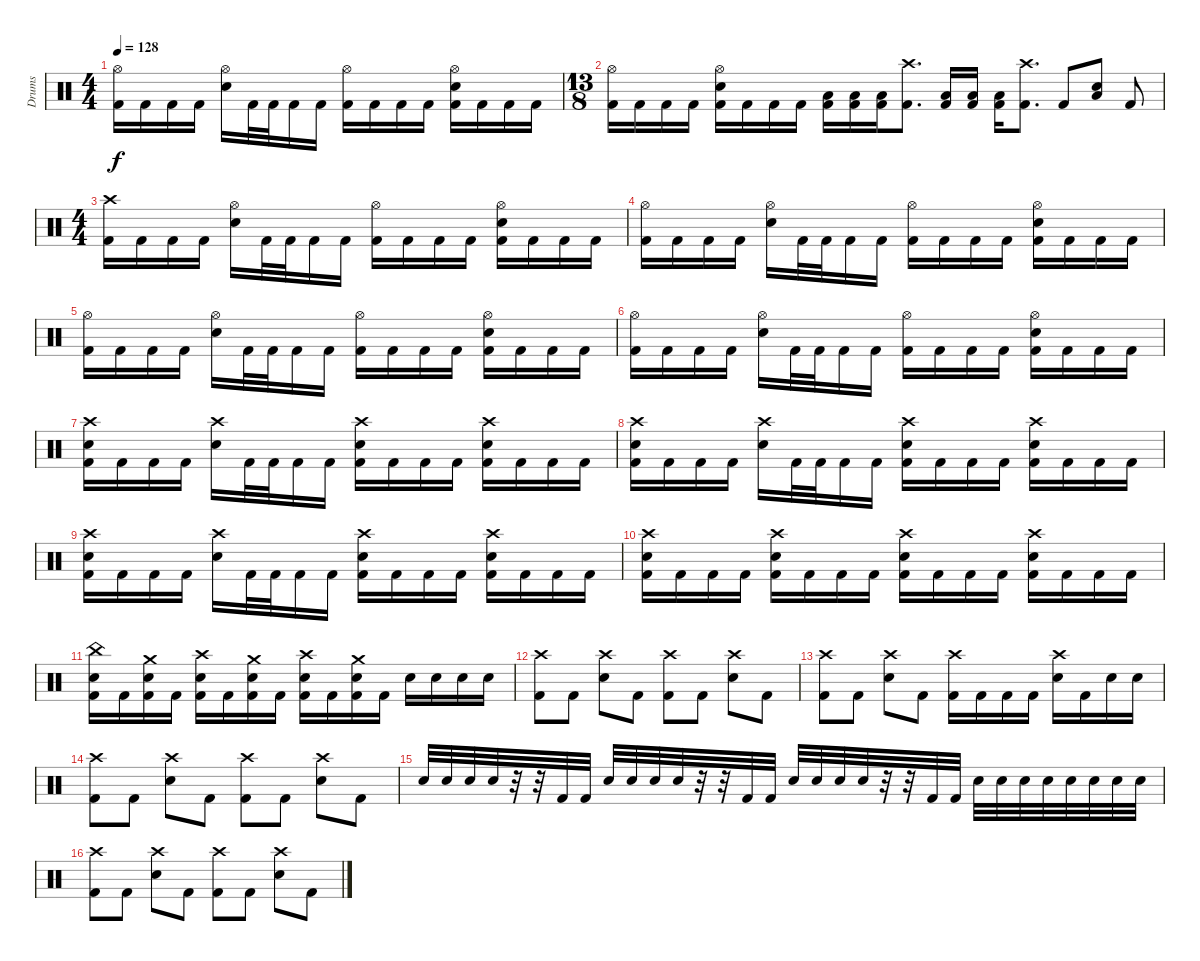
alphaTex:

\track ("Drums" "Drums") {instrument percussion}
\staff {score}
\articulation defaults
\ts (4 4)
\tempo 128
\clef neutral
\ks c
("Hi-Hat (open)" "Kick (hit) 2").16{dy f} "Kick (hit) 2".16 "Kick (hit) 2".16 "Kick (hit) 2".16 ("Hi-Hat (open)" "Electric Snare (hit)").16 "Kick (hit) 2".32 "Kick (hit) 2".32 "Kick (hit) 2".16 "Kick (hit) 2".16 ("Hi-Hat (open)" "Kick (hit) 2").16 "Kick (hit) 2".16 "Kick (hit) 2".16 "Kick (hit) 2".16 ("Hi-Hat (open)" "Electric Snare (hit)" "Kick (hit) 2").16 "Kick (hit) 2".16 "Kick (hit) 2".16 "Kick (hit) 2".16 |
\ts (13 8)
("Hi-Hat (open)" "Kick (hit) 2").16 "Kick (hit) 2".16 "Kick (hit) 2".16 "Kick (hit) 2".16 ("Hi-Hat (open)" "Electric Snare (hit)" "Kick (hit) 2").16 "Kick (hit) 2".16 "Kick (hit) 2".16 "Kick (hit) 2".16 ("Low Tom (hit)" "Kick (hit) 2").16 ("Low Tom (hit)" "Kick (hit) 2").16 ("Low Tom (hit)" "Kick (hit) 2").16 ("Crash high (hit)" "Kick (hit) 2").8{d} ("Low Tom (hit)" "Kick (hit) 2").16 ("Low Tom (hit)" "Kick (hit) 2").16 ("Low Tom (hit)" "Kick (hit) 2").16 ("Crash high (hit)" "Kick (hit) 2").8{d} "Kick (hit) 2".8 ("Low Floor Tom (hit)" "Electric Snare (hit)").8 "Kick (hit) 2".8 |
\ts (4 4)
("Crash high (hit)" "Kick (hit) 2").16 "Kick (hit) 2".16 "Kick (hit) 2".16 "Kick (hit) 2".16 ("Hi-Hat (open)" "Electric Snare (hit)").16 "Kick (hit) 2".32 "Kick (hit) 2".32 "Kick (hit) 2".16 "Kick (hit) 2".16 ("Hi-Hat (open)" "Kick (hit) 2").16 "Kick (hit) 2".16 "Kick (hit) 2".16 "Kick (hit) 2".16 ("Hi-Hat (open)" "Electric Snare (hit)" "Kick (hit) 2").16 "Kick (hit) 2".16 "Kick (hit) 2".16 "Kick (hit) 2".16 |
("Hi-Hat (open)" "Kick (hit) 2").16 "Kick (hit) 2".16 "Kick (hit) 2".16 "Kick (hit) 2".16 ("Hi-Hat (open)" "Electric Snare (hit)").16 "Kick (hit) 2".32 "Kick (hit) 2".32 "Kick (hit) 2".16 "Kick (hit) 2".16 ("Hi-Hat (open)" "Kick (hit) 2").16 "Kick (hit) 2".16 "Kick (hit) 2".16 "Kick (hit) 2".16 ("Hi-Hat (open)" "Electric Snare (hit)" "Kick (hit) 2").16 "Kick (hit) 2".16 "Kick (hit) 2".16 "Kick (hit) 2".16 |
("Hi-Hat (open)" "Kick (hit) 2").16 "Kick (hit) 2".16 "Kick (hit) 2".16 "Kick (hit) 2".16 ("Hi-Hat (open)" "Electric Snare (hit)").16 "Kick (hit) 2".32 "Kick (hit) 2".32 "Kick (hit) 2".16 "Kick (hit) 2".16 ("Hi-Hat (open)" "Kick (hit) 2").16 "Kick (hit) 2".16 "Kick (hit) 2".16 "Kick (hit) 2".16 ("Hi-Hat (open)" "Electric Snare (hit)" "Kick (hit) 2").16 "Kick (hit) 2".16 "Kick (hit) 2".16 "Kick (hit) 2".16 |
("Hi-Hat (open)" "Kick (hit) 2").16 "Kick (hit) 2".16 "Kick (hit) 2".16 "Kick (hit) 2".16 ("Hi-Hat (open)" "Electric Snare (hit)").16 "Kick (hit) 2".32 "Kick (hit) 2".32 "Kick (hit) 2".16 "Kick (hit) 2".16 ("Hi-Hat (open)" "Kick (hit) 2").16 "Kick (hit) 2".16 "Kick (hit) 2".16 "Kick (hit) 2".16 ("Hi-Hat (open)" "Electric Snare (hit)" "Kick (hit) 2").16 "Kick (hit) 2".16 "Kick (hit) 2".16 "Kick (hit) 2".16 |
("Crash high (hit)" "Electric Snare (hit)" "Kick (hit) 2").16 "Kick (hit) 2".16 "Kick (hit) 2".16 "Kick (hit) 2".16 ("Crash high (hit)" "Electric Snare (hit)").16 "Kick (hit) 2".32 "Kick (hit) 2".32 "Kick (hit) 2".16 "Kick (hit) 2".16 ("Crash high (hit)" "Electric Snare (hit)" "Kick (hit) 2").16 "Kick (hit) 2".16 "Kick (hit) 2".16 "Kick (hit) 2".16 ("Crash high (hit)" "Electric Snare (hit)" "Kick (hit) 2").16 "Kick (hit) 2".16 "Kick (hit) 2".16 "Kick (hit) 2".16 |
("Crash high (hit)" "Electric Snare (hit)" "Kick (hit) 2").16 "Kick (hit) 2".16 "Kick (hit) 2".16 "Kick (hit) 2".16 ("Crash high (hit)" "Electric Snare (hit)").16 "Kick (hit) 2".32 "Kick (hit) 2".32 "Kick (hit) 2".16 "Kick (hit) 2".16 ("Crash high (hit)" "Electric Snare (hit)" "Kick (hit) 2").16 "Kick (hit) 2".16 "Kick (hit) 2".16 "Kick (hit) 2".16 ("Crash high (hit)" "Electric Snare (hit)" "Kick (hit) 2").16 "Kick (hit) 2".16 "Kick (hit) 2".16 "Kick (hit) 2".16 |
("Crash high (hit)" "Electric Snare (hit)" "Kick (hit) 2").16 "Kick (hit) 2".16 "Kick (hit) 2".16 "Kick (hit) 2".16 ("Crash high (hit)" "Electric Snare (hit)").16 "Kick (hit) 2".32 "Kick (hit) 2".32 "Kick (hit) 2".16 "Kick (hit) 2".16 ("Crash high (hit)" "Electric Snare (hit)" "Kick (hit) 2").16 "Kick (hit) 2".16 "Kick (hit) 2".16 "Kick (hit) 2".16 ("Crash high (hit)" "Electric Snare (hit)" "Kick (hit) 2").16 "Kick (hit) 2".16 "Kick (hit) 2".16 "Kick (hit) 2".16 |
("Crash high (hit)" "Electric Snare (hit)" "Kick (hit) 2").16 "Kick (hit) 2".16 "Kick (hit) 2".16 "Kick (hit) 2".16 ("Crash high (hit)" "Electric Snare (hit)" "Kick (hit) 2").16 "Kick (hit) 2".16 "Kick (hit) 2".16 "Kick (hit) 2".16 ("Crash high (hit)" "Electric Snare (hit)" "Kick (hit) 2").16 "Kick (hit) 2".16 "Kick (hit) 2".16 "Kick (hit) 2".16 ("Crash high (hit)" "Electric Snare (hit)" "Kick (hit) 2").16 "Kick (hit) 2".16 "Kick (hit) 2".16 "Kick (hit) 2".16 |
("China (hit)" "Electric Snare (hit)" "Kick (hit) 2").16 "Kick (hit) 2".16 ("Crash medium (hit)" "Electric Snare (hit)" "Kick (hit) 2").16 "Kick (hit) 2".16 ("Crash high (hit)" "Electric Snare (hit)" "Kick (hit) 2").16 "Kick (hit) 2".16 ("Crash medium (hit)" "Electric Snare (hit)" "Kick (hit) 2").16 "Kick (hit) 2".16 ("Crash high (hit)" "Electric Snare (hit)" "Kick (hit) 2").16 "Kick (hit) 2".16 ("Crash medium (hit)" "Electric Snare (hit)" "Kick (hit) 2").16 "Kick (hit) 2".16 "Electric Snare (hit)".16 "Electric Snare (hit)".16 "Electric Snare (hit)".16 "Electric Snare (hit)".16 |
("Crash high (hit)" "Kick (hit) 2").8 "Kick (hit) 2".8 ("Crash high (hit)" "Electric Snare (hit)").8 "Kick (hit) 2".8 ("Crash high (hit)" "Kick (hit) 2").8 "Kick (hit) 2".8 ("Crash high (hit)" "Electric Snare (hit)").8 "Kick (hit) 2".8 |
("Crash high (hit)" "Kick (hit) 2").8 "Kick (hit) 2".8 ("Crash high (hit)" "Electric Snare (hit)").8 "Kick (hit) 2".8 ("Crash high (hit)" "Kick (hit) 2").16 "Kick (hit) 2".16 "Kick (hit) 2".16 "Kick (hit) 2".16 ("Crash high (hit)" "Electric Snare (hit)").16 "Kick (hit) 2".16 "Electric Snare (hit)".16 "Electric Snare (hit)".16 |
("Crash high (hit)" "Kick (hit) 2").8 "Kick (hit) 2".8 ("Crash high (hit)" "Electric Snare (hit)").8 "Kick (hit) 2".8 ("Crash high (hit)" "Kick (hit) 2").8 "Kick (hit) 2".8 ("Crash high (hit)" "Electric Snare (hit)").8 "Kick (hit) 2".8 |
"Electric Snare (hit)".32 "Electric Snare (hit)".32 "Electric Snare (hit)".32 "Electric Snare (hit)".32 r.32 r.32 "Kick (hit) 2".32 "Kick (hit) 2".32 "Electric Snare (hit)".32 "Electric Snare (hit)".32 "Electric Snare (hit)".32 "Electric Snare (hit)".32 r.32 r.32 "Kick (hit) 2".32 "Kick (hit) 2".32 "Electric Snare (hit)".32 "Electric Snare (hit)".32 "Electric Snare (hit)".32 "Electric Snare (hit)".32 r.32 r.32 "Kick (hit) 2".32 "Kick (hit) 2".32 "Electric Snare (hit)".32 "Electric Snare (hit)".32 "Electric Snare (hit)".32 "Electric Snare (hit)".32 "Electric Snare (hit)".32 "Electric Snare (hit)".32 "Electric Snare (hit)".32 "Electric Snare (hit)".32 |
("Crash high (hit)" "Kick (hit) 2").8 "Kick (hit) 2".8 ("Crash high (hit)" "Electric Snare (hit)").8 "Kick (hit) 2".8 ("Crash high (hit)" "Kick (hit) 2").8 "Kick (hit) 2".8 ("Crash high (hit)" "Electric Snare (hit)").8 "Kick (hit) 2".8
